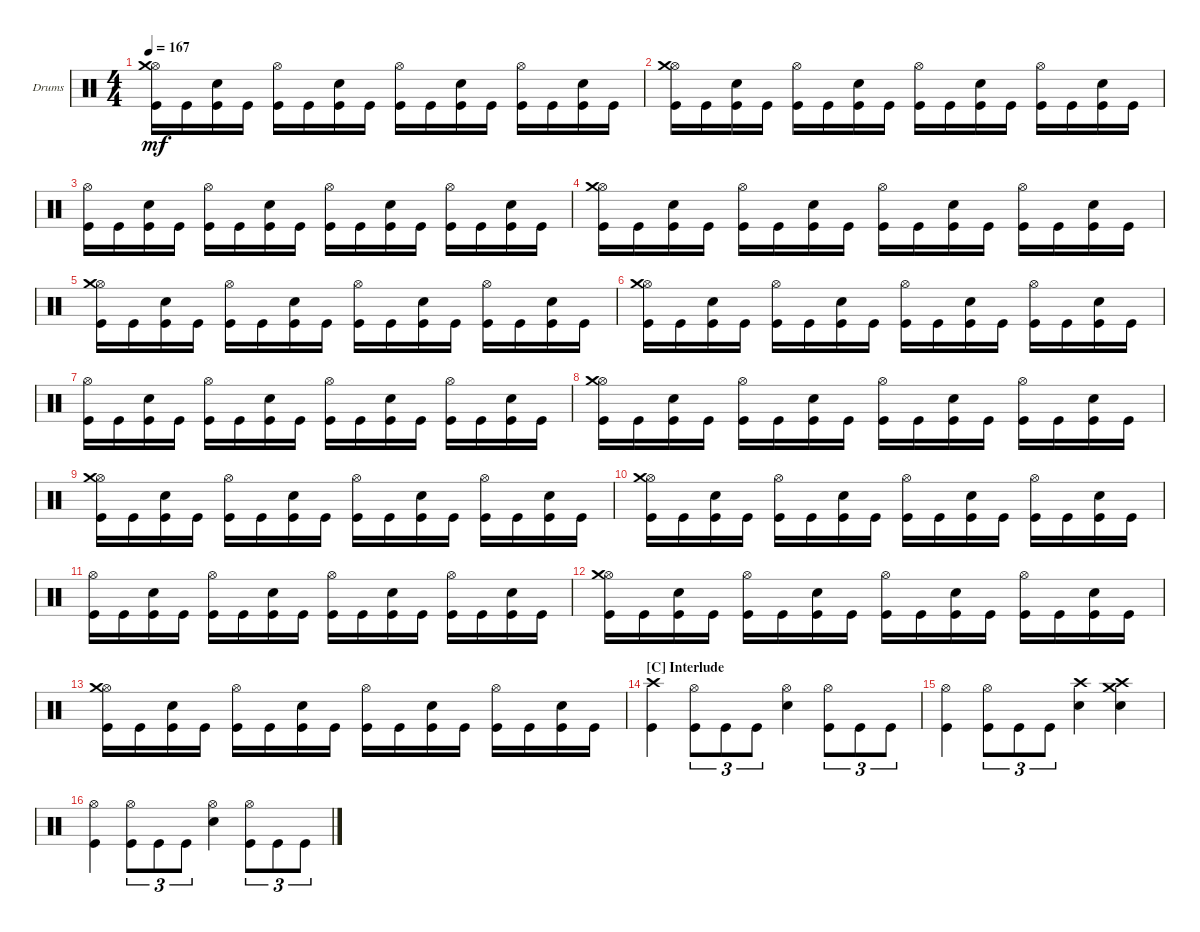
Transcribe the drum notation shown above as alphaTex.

\defaultSystemsLayout 4
\bracketExtendMode groupsimilarinstruments
\firstSystemTrackNameOrientation horizontal
\otherSystemsTrackNameOrientation horizontal
\track ("Drumkit" "Drums") {instrument percussion}
\staff {score}
\articulation defaults
\ts (4 4)
\tempo 167
\clef neutral
\scale
0.333333
\ks c
("Kick (hit)" "Hi-Hat (open)" "Crash medium (hit)").16{dy mf} "Kick (hit)".16 ("Snare (hit) 2" "Kick (hit)").16 "Kick (hit)".16 ("Hi-Hat (open)" "Kick (hit)").16 "Kick (hit)".16 ("Kick (hit)" "Snare (hit) 2").16 "Kick (hit)".16 ("Kick (hit)" "Hi-Hat (open)").16 "Kick (hit)".16 ("Kick (hit)" "Snare (hit) 2").16 "Kick (hit)".16 ("Kick (hit)" "Hi-Hat (open)").16 "Kick (hit)".16 ("Kick (hit)" "Snare (hit) 2").16 "Kick (hit)".16 |
\scale
0.333333 ("Kick (hit)" "Hi-Hat (open)" "Crash medium (hit)").16 "Kick (hit)".16 ("Snare (hit) 2" "Kick (hit)").16 "Kick (hit)".16 ("Hi-Hat (open)" "Kick (hit)").16 "Kick (hit)".16 ("Kick (hit)" "Snare (hit) 2").16 "Kick (hit)".16 ("Kick (hit)" "Hi-Hat (open)").16 "Kick (hit)".16 ("Kick (hit)" "Snare (hit) 2").16 "Kick (hit)".16 ("Kick (hit)" "Hi-Hat (open)").16 "Kick (hit)".16 ("Kick (hit)" "Snare (hit) 2").16 "Kick (hit)".16 |
\scale
0.333333 ("Kick (hit)" "Hi-Hat (open)").16 "Kick (hit)".16 ("Snare (hit) 2" "Kick (hit)").16 "Kick (hit)".16 ("Hi-Hat (open)" "Kick (hit)").16 "Kick (hit)".16 ("Kick (hit)" "Snare (hit) 2").16 "Kick (hit)".16 ("Kick (hit)" "Hi-Hat (open)").16 "Kick (hit)".16 ("Kick (hit)" "Snare (hit) 2").16 "Kick (hit)".16 ("Kick (hit)" "Hi-Hat (open)").16 "Kick (hit)".16 ("Kick (hit)" "Snare (hit) 2").16 "Kick (hit)".16 |
\scale
0.333333 ("Kick (hit)" "Hi-Hat (open)" "Crash medium (hit)").16 "Kick (hit)".16 ("Snare (hit) 2" "Kick (hit)").16 "Kick (hit)".16 ("Hi-Hat (open)" "Kick (hit)").16 "Kick (hit)".16 ("Kick (hit)" "Snare (hit) 2").16 "Kick (hit)".16 ("Kick (hit)" "Hi-Hat (open)").16 "Kick (hit)".16 ("Kick (hit)" "Snare (hit) 2").16 "Kick (hit)".16 ("Kick (hit)" "Hi-Hat (open)").16 "Kick (hit)".16 ("Kick (hit)" "Snare (hit) 2").16 "Kick (hit)".16 |
\scale
0.333333 ("Kick (hit)" "Hi-Hat (open)" "Crash medium (hit)").16 "Kick (hit)".16 ("Snare (hit) 2" "Kick (hit)").16 "Kick (hit)".16 ("Hi-Hat (open)" "Kick (hit)").16 "Kick (hit)".16 ("Kick (hit)" "Snare (hit) 2").16 "Kick (hit)".16 ("Kick (hit)" "Hi-Hat (open)").16 "Kick (hit)".16 ("Kick (hit)" "Snare (hit) 2").16 "Kick (hit)".16 ("Kick (hit)" "Hi-Hat (open)").16 "Kick (hit)".16 ("Kick (hit)" "Snare (hit) 2").16 "Kick (hit)".16 |
\scale
0.333333 ("Kick (hit)" "Hi-Hat (open)" "Crash medium (hit)").16 "Kick (hit)".16 ("Snare (hit) 2" "Kick (hit)").16 "Kick (hit)".16 ("Hi-Hat (open)" "Kick (hit)").16 "Kick (hit)".16 ("Kick (hit)" "Snare (hit) 2").16 "Kick (hit)".16 ("Kick (hit)" "Hi-Hat (open)").16 "Kick (hit)".16 ("Kick (hit)" "Snare (hit) 2").16 "Kick (hit)".16 ("Kick (hit)" "Hi-Hat (open)").16 "Kick (hit)".16 ("Kick (hit)" "Snare (hit) 2").16 "Kick (hit)".16 |
\scale
0.333333 ("Kick (hit)" "Hi-Hat (open)").16 "Kick (hit)".16 ("Snare (hit) 2" "Kick (hit)").16 "Kick (hit)".16 ("Hi-Hat (open)" "Kick (hit)").16 "Kick (hit)".16 ("Kick (hit)" "Snare (hit) 2").16 "Kick (hit)".16 ("Kick (hit)" "Hi-Hat (open)").16 "Kick (hit)".16 ("Kick (hit)" "Snare (hit) 2").16 "Kick (hit)".16 ("Kick (hit)" "Hi-Hat (open)").16 "Kick (hit)".16 ("Kick (hit)" "Snare (hit) 2").16 "Kick (hit)".16 |
\scale
0.333333 ("Kick (hit)" "Hi-Hat (open)" "Crash medium (hit)").16 "Kick (hit)".16 ("Snare (hit) 2" "Kick (hit)").16 "Kick (hit)".16 ("Hi-Hat (open)" "Kick (hit)").16 "Kick (hit)".16 ("Kick (hit)" "Snare (hit) 2").16 "Kick (hit)".16 ("Kick (hit)" "Hi-Hat (open)").16 "Kick (hit)".16 ("Kick (hit)" "Snare (hit) 2").16 "Kick (hit)".16 ("Kick (hit)" "Hi-Hat (open)").16 "Kick (hit)".16 ("Kick (hit)" "Snare (hit) 2").16 "Kick (hit)".16 |
\scale
0.333333 ("Kick (hit)" "Hi-Hat (open)" "Crash medium (hit)").16 "Kick (hit)".16 ("Snare (hit) 2" "Kick (hit)").16 "Kick (hit)".16 ("Hi-Hat (open)" "Kick (hit)").16 "Kick (hit)".16 ("Kick (hit)" "Snare (hit) 2").16 "Kick (hit)".16 ("Kick (hit)" "Hi-Hat (open)").16 "Kick (hit)".16 ("Kick (hit)" "Snare (hit) 2").16 "Kick (hit)".16 ("Kick (hit)" "Hi-Hat (open)").16 "Kick (hit)".16 ("Kick (hit)" "Snare (hit) 2").16 "Kick (hit)".16 |
\scale
0.333333 ("Kick (hit)" "Hi-Hat (open)" "Crash medium (hit)").16 "Kick (hit)".16 ("Snare (hit) 2" "Kick (hit)").16 "Kick (hit)".16 ("Hi-Hat (open)" "Kick (hit)").16 "Kick (hit)".16 ("Kick (hit)" "Snare (hit) 2").16 "Kick (hit)".16 ("Kick (hit)" "Hi-Hat (open)").16 "Kick (hit)".16 ("Kick (hit)" "Snare (hit) 2").16 "Kick (hit)".16 ("Kick (hit)" "Hi-Hat (open)").16 "Kick (hit)".16 ("Kick (hit)" "Snare (hit) 2").16 "Kick (hit)".16 |
("Kick (hit)" "Hi-Hat (open)").16 "Kick (hit)".16 ("Snare (hit) 2" "Kick (hit)").16 "Kick (hit)".16 ("Hi-Hat (open)" "Kick (hit)").16 "Kick (hit)".16 ("Kick (hit)" "Snare (hit) 2").16 "Kick (hit)".16 ("Kick (hit)" "Hi-Hat (open)").16 "Kick (hit)".16 ("Kick (hit)" "Snare (hit) 2").16 "Kick (hit)".16 ("Kick (hit)" "Hi-Hat (open)").16 "Kick (hit)".16 ("Kick (hit)" "Snare (hit) 2").16 "Kick (hit)".16 |
("Kick (hit)" "Hi-Hat (open)" "Crash medium (hit)").16 "Kick (hit)".16 ("Snare (hit) 2" "Kick (hit)").16 "Kick (hit)".16 ("Hi-Hat (open)" "Kick (hit)").16 "Kick (hit)".16 ("Kick (hit)" "Snare (hit) 2").16 "Kick (hit)".16 ("Kick (hit)" "Hi-Hat (open)").16 "Kick (hit)".16 ("Kick (hit)" "Snare (hit) 2").16 "Kick (hit)".16 ("Kick (hit)" "Hi-Hat (open)").16 "Kick (hit)".16 ("Kick (hit)" "Snare (hit) 2").16 "Kick (hit)".16 |
("Kick (hit)" "Hi-Hat (open)" "Crash medium (hit)").16 "Kick (hit)".16 ("Snare (hit) 2" "Kick (hit)").16 "Kick (hit)".16 ("Hi-Hat (open)" "Kick (hit)").16 "Kick (hit)".16 ("Kick (hit)" "Snare (hit) 2").16 "Kick (hit)".16 ("Kick (hit)" "Hi-Hat (open)").16 "Kick (hit)".16 ("Kick (hit)" "Snare (hit) 2").16 "Kick (hit)".16 ("Kick (hit)" "Hi-Hat (open)").16 "Kick (hit)".16 ("Kick (hit)" "Snare (hit) 2").16 "Kick (hit)".16 |
\section ("C" "Interlude")
("Kick (hit)" "Crash high (hit)").4 ("Kick (hit)" "Hi-Hat (open)").8{tu (3 2)} "Kick (hit)".8{tu (3 2)} "Kick (hit)".8{tu (3 2)} ("Hi-Hat (open)" "Snare (hit) 2").4 ("Kick (hit)" "Hi-Hat (open)").8{tu (3 2)} "Kick (hit)".8{tu (3 2)} "Kick (hit)".8{tu (3 2)} |
("Kick (hit)" "Hi-Hat (open)").4 ("Kick (hit)" "Hi-Hat (open)").8{tu (3 2)} "Kick (hit)".8{tu (3 2)} "Kick (hit)".8{tu (3 2)} ("Snare (hit) 2" "Crash high (hit)").4 ("Snare (hit) 2" "Crash medium (hit)" "Crash high (hit)").4 |
("Kick (hit)" "Hi-Hat (open)").4 ("Kick (hit)" "Hi-Hat (open)").8{tu (3 2)} "Kick (hit)".8{tu (3 2)} "Kick (hit)".8{tu (3 2)} ("Hi-Hat (open)" "Snare (hit) 2").4 ("Kick (hit)" "Hi-Hat (open)").8{tu (3 2)} "Kick (hit)".8{tu (3 2)} "Kick (hit)".8{tu (3 2)}
